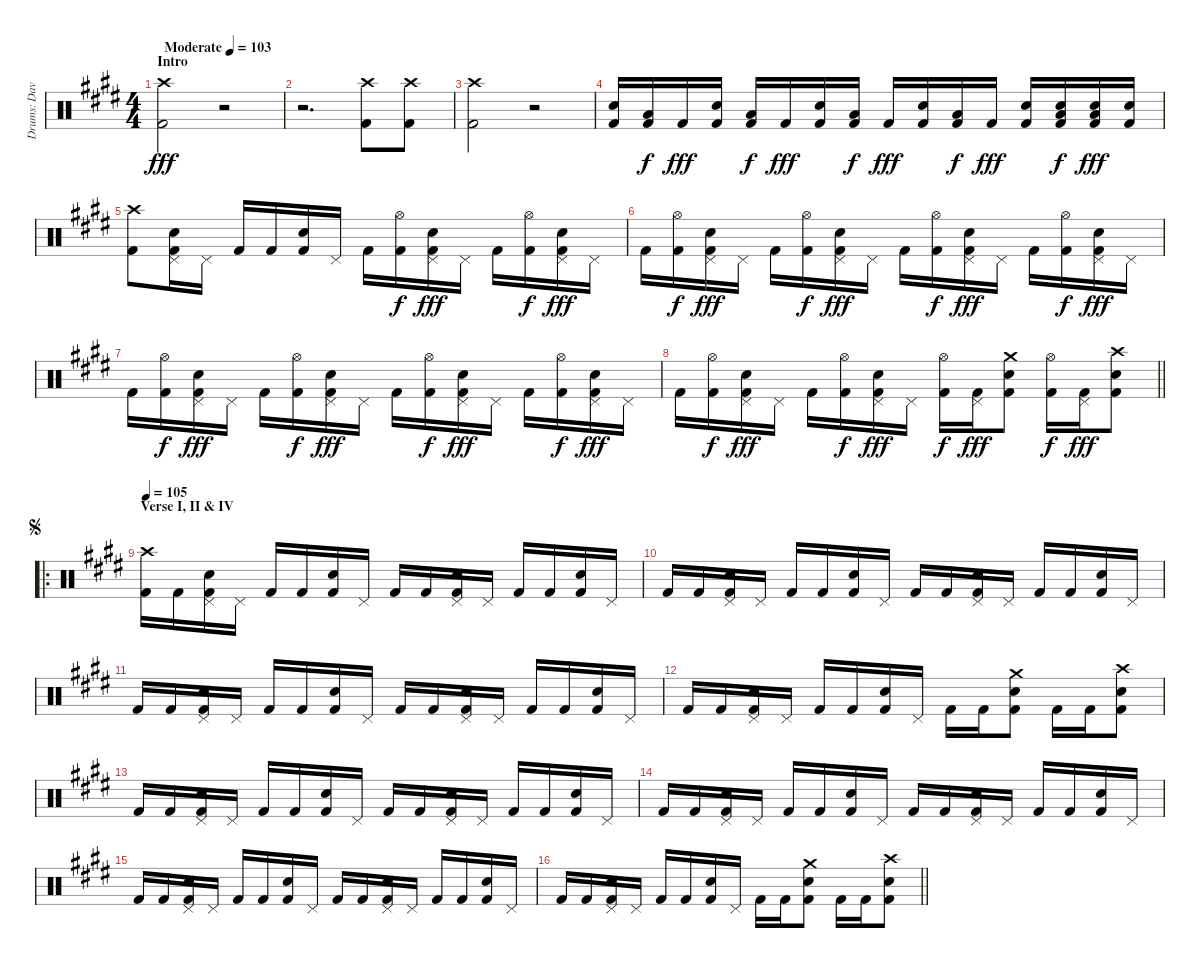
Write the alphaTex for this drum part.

\track ("Drums: Dave" "Drums: Dav") {instrument percussion}
\staff {score}
\articulation defaults
\ts (4 4)
\section ("" "Intro")
\tempo (103 "Moderate")
\clef neutral
\ks e
("Crash high (hit)" "Kick (hit) 2").2{dy fff} r.2 |
r.2{d} ("Crash high (hit)" "Kick (hit) 2").8 ("Crash high (hit)" "Kick (hit) 2").8 |
("Crash high (hit)" "Kick (hit) 2").2 r.2 |
("Snare (hit) 2" "Kick (hit) 2").16 ("Low Tom (hit)" "Kick (hit) 2").16{dy f} "Kick (hit) 2".16{dy fff} ("Snare (hit) 2" "Kick (hit) 2").16 ("Low Tom (hit)" "Kick (hit) 2").16{dy f} "Kick (hit) 2".16{dy fff} ("Snare (hit) 2" "Kick (hit) 2").16 ("Low Tom (hit)" "Kick (hit) 2").16{dy f} "Kick (hit) 2".16{dy fff} ("Snare (hit) 2" "Kick (hit) 2").16 ("Low Tom (hit)" "Kick (hit) 2").16{dy f} "Kick (hit) 2".16{dy fff} ("Snare (hit) 2" "Kick (hit) 2").16 ("Snare (hit) 2" "Low Tom (hit)" "Kick (hit) 2").16{dy f} ("Snare (hit) 2" "Low Tom (hit)" "Kick (hit) 2").16{dy fff} ("Snare (hit) 2" "Kick (hit) 2").16 |
("Crash high (hit)" "Kick (hit) 2").8 ("Pedal Hi-Hat (hit)" "Snare (hit) 2" "Kick (hit) 2").16 "Pedal Hi-Hat (hit)".16 "Kick (hit) 2".16 "Kick (hit) 2".16 ("Snare (hit) 2" "Kick (hit) 2").16 "Pedal Hi-Hat (hit)".16 "Kick (hit) 2".16 ("Hi-Hat (open)" "Kick (hit) 2").16{dy f} ("Pedal Hi-Hat (hit)" "Snare (hit) 2" "Kick (hit) 2").16{dy fff} "Pedal Hi-Hat (hit)".16 "Kick (hit) 2".16 ("Hi-Hat (open)" "Kick (hit) 2").16{dy f} ("Pedal Hi-Hat (hit)" "Snare (hit) 2" "Kick (hit) 2").16{dy fff} "Pedal Hi-Hat (hit)".16 |
"Kick (hit) 2".16 ("Hi-Hat (open)" "Kick (hit) 2").16{dy f} ("Pedal Hi-Hat (hit)" "Snare (hit) 2" "Kick (hit) 2").16{dy fff} "Pedal Hi-Hat (hit)".16 "Kick (hit) 2".16 ("Hi-Hat (open)" "Kick (hit) 2").16{dy f} ("Pedal Hi-Hat (hit)" "Snare (hit) 2" "Kick (hit) 2").16{dy fff} "Pedal Hi-Hat (hit)".16 "Kick (hit) 2".16 ("Hi-Hat (open)" "Kick (hit) 2").16{dy f} ("Pedal Hi-Hat (hit)" "Snare (hit) 2" "Kick (hit) 2").16{dy fff} "Pedal Hi-Hat (hit)".16 "Kick (hit) 2".16 ("Hi-Hat (open)" "Kick (hit) 2").16{dy f} ("Pedal Hi-Hat (hit)" "Snare (hit) 2" "Kick (hit) 2").16{dy fff} "Pedal Hi-Hat (hit)".16 |
"Kick (hit) 2".16 ("Hi-Hat (open)" "Kick (hit) 2").16{dy f} ("Pedal Hi-Hat (hit)" "Snare (hit) 2" "Kick (hit) 2").16{dy fff} "Pedal Hi-Hat (hit)".16 "Kick (hit) 2".16 ("Hi-Hat (open)" "Kick (hit) 2").16{dy f} ("Pedal Hi-Hat (hit)" "Snare (hit) 2" "Kick (hit) 2").16{dy fff} "Pedal Hi-Hat (hit)".16 "Kick (hit) 2".16 ("Hi-Hat (open)" "Kick (hit) 2").16{dy f} ("Pedal Hi-Hat (hit)" "Snare (hit) 2" "Kick (hit) 2").16{dy fff} "Pedal Hi-Hat (hit)".16 "Kick (hit) 2".16 ("Hi-Hat (open)" "Kick (hit) 2").16{dy f} ("Pedal Hi-Hat (hit)" "Snare (hit) 2" "Kick (hit) 2").16{dy fff} "Pedal Hi-Hat (hit)".16 |
\barLineRight lightlight "Kick (hit) 2".16
("Hi-Hat (open)" "Kick (hit) 2").16{dy f} ("Pedal Hi-Hat (hit)" "Snare (hit) 2" "Kick (hit) 2").16{dy fff} "Pedal Hi-Hat (hit)".16 "Kick (hit) 2".16 ("Hi-Hat (open)" "Kick (hit) 2").16{dy f} ("Pedal Hi-Hat (hit)" "Snare (hit) 2" "Kick (hit) 2").16{dy fff} "Pedal Hi-Hat (hit)".16 ("Hi-Hat (open)" "Kick (hit) 2").16{dy f} ("Pedal Hi-Hat (hit)" "Kick (hit) 2").16{dy fff} ("Crash medium (hit)" "Snare (hit) 2" "Kick (hit) 2").8 ("Hi-Hat (open)" "Kick (hit) 2").16{dy f} ("Pedal Hi-Hat (hit)" "Kick (hit) 2").16{dy fff} ("Crash high (hit)" "Snare (hit) 2" "Kick (hit) 2").8 |
\ro
\section ("" "Verse I, II & IV")
\jump segno
\tempo 105
("Crash high (hit)" "Kick (hit) 2").16 "Kick (hit) 2".16 ("Pedal Hi-Hat (hit)" "Snare (hit) 2" "Kick (hit) 2").16 "Pedal Hi-Hat (hit)".16 "Kick (hit) 2".16 "Kick (hit) 2".16 ("Snare (hit) 2" "Kick (hit) 2").16 "Pedal Hi-Hat (hit)".16 "Kick (hit) 2".16 "Kick (hit) 2".16 ("Pedal Hi-Hat (hit)" "Snare (hit) 2" "Kick (hit) 2").16 "Pedal Hi-Hat (hit)".16 "Kick (hit) 2".16 "Kick (hit) 2".16 ("Snare (hit) 2" "Kick (hit) 2").16 "Pedal Hi-Hat (hit)".16 |
"Kick (hit) 2".16 "Kick (hit) 2".16 ("Pedal Hi-Hat (hit)" "Snare (hit) 2" "Kick (hit) 2").16 "Pedal Hi-Hat (hit)".16 "Kick (hit) 2".16 "Kick (hit) 2".16 ("Snare (hit) 2" "Kick (hit) 2").16 "Pedal Hi-Hat (hit)".16 "Kick (hit) 2".16 "Kick (hit) 2".16 ("Pedal Hi-Hat (hit)" "Snare (hit) 2" "Kick (hit) 2").16 "Pedal Hi-Hat (hit)".16 "Kick (hit) 2".16 "Kick (hit) 2".16 ("Snare (hit) 2" "Kick (hit) 2").16 "Pedal Hi-Hat (hit)".16 |
"Kick (hit) 2".16 "Kick (hit) 2".16 ("Pedal Hi-Hat (hit)" "Snare (hit) 2" "Kick (hit) 2").16 "Pedal Hi-Hat (hit)".16 "Kick (hit) 2".16 "Kick (hit) 2".16 ("Snare (hit) 2" "Kick (hit) 2").16 "Pedal Hi-Hat (hit)".16 "Kick (hit) 2".16 "Kick (hit) 2".16 ("Pedal Hi-Hat (hit)" "Snare (hit) 2" "Kick (hit) 2").16 "Pedal Hi-Hat (hit)".16 "Kick (hit) 2".16 "Kick (hit) 2".16 ("Snare (hit) 2" "Kick (hit) 2").16 "Pedal Hi-Hat (hit)".16 |
"Kick (hit) 2".16 "Kick (hit) 2".16 ("Pedal Hi-Hat (hit)" "Snare (hit) 2" "Kick (hit) 2").16 "Pedal Hi-Hat (hit)".16 "Kick (hit) 2".16 "Kick (hit) 2".16 ("Snare (hit) 2" "Kick (hit) 2").16 "Pedal Hi-Hat (hit)".16 "Kick (hit) 2".16 "Kick (hit) 2".16 ("Crash medium (hit)" "Snare (hit) 2" "Kick (hit) 2").8 "Kick (hit) 2".16 "Kick (hit) 2".16 ("Crash high (hit)" "Snare (hit) 2" "Kick (hit) 2").8 |
"Kick (hit) 2".16 "Kick (hit) 2".16 ("Pedal Hi-Hat (hit)" "Snare (hit) 2" "Kick (hit) 2").16 "Pedal Hi-Hat (hit)".16 "Kick (hit) 2".16 "Kick (hit) 2".16 ("Snare (hit) 2" "Kick (hit) 2").16 "Pedal Hi-Hat (hit)".16 "Kick (hit) 2".16 "Kick (hit) 2".16 ("Pedal Hi-Hat (hit)" "Snare (hit) 2" "Kick (hit) 2").16 "Pedal Hi-Hat (hit)".16 "Kick (hit) 2".16 "Kick (hit) 2".16 ("Snare (hit) 2" "Kick (hit) 2").16 "Pedal Hi-Hat (hit)".16 |
"Kick (hit) 2".16 "Kick (hit) 2".16 ("Pedal Hi-Hat (hit)" "Snare (hit) 2" "Kick (hit) 2").16 "Pedal Hi-Hat (hit)".16 "Kick (hit) 2".16 "Kick (hit) 2".16 ("Snare (hit) 2" "Kick (hit) 2").16 "Pedal Hi-Hat (hit)".16 "Kick (hit) 2".16 "Kick (hit) 2".16 ("Pedal Hi-Hat (hit)" "Snare (hit) 2" "Kick (hit) 2").16 "Pedal Hi-Hat (hit)".16 "Kick (hit) 2".16 "Kick (hit) 2".16 ("Snare (hit) 2" "Kick (hit) 2").16 "Pedal Hi-Hat (hit)".16 |
"Kick (hit) 2".16 "Kick (hit) 2".16 ("Pedal Hi-Hat (hit)" "Snare (hit) 2" "Kick (hit) 2").16 "Pedal Hi-Hat (hit)".16 "Kick (hit) 2".16 "Kick (hit) 2".16 ("Snare (hit) 2" "Kick (hit) 2").16 "Pedal Hi-Hat (hit)".16 "Kick (hit) 2".16 "Kick (hit) 2".16 ("Pedal Hi-Hat (hit)" "Snare (hit) 2" "Kick (hit) 2").16 "Pedal Hi-Hat (hit)".16 "Kick (hit) 2".16 "Kick (hit) 2".16 ("Snare (hit) 2" "Kick (hit) 2").16 "Pedal Hi-Hat (hit)".16 |
\barLineRight lightlight "Kick (hit) 2".16 "Kick (hit) 2".16
("Pedal Hi-Hat (hit)" "Snare (hit) 2" "Kick (hit) 2").16 "Pedal Hi-Hat (hit)".16 "Kick (hit) 2".16 "Kick (hit) 2".16 ("Snare (hit) 2" "Kick (hit) 2").16 "Pedal Hi-Hat (hit)".16 "Kick (hit) 2".16 "Kick (hit) 2".16 ("Crash medium (hit)" "Snare (hit) 2" "Kick (hit) 2").8 "Kick (hit) 2".16 "Kick (hit) 2".16 ("Crash high (hit)" "Snare (hit) 2" "Kick (hit) 2").8
